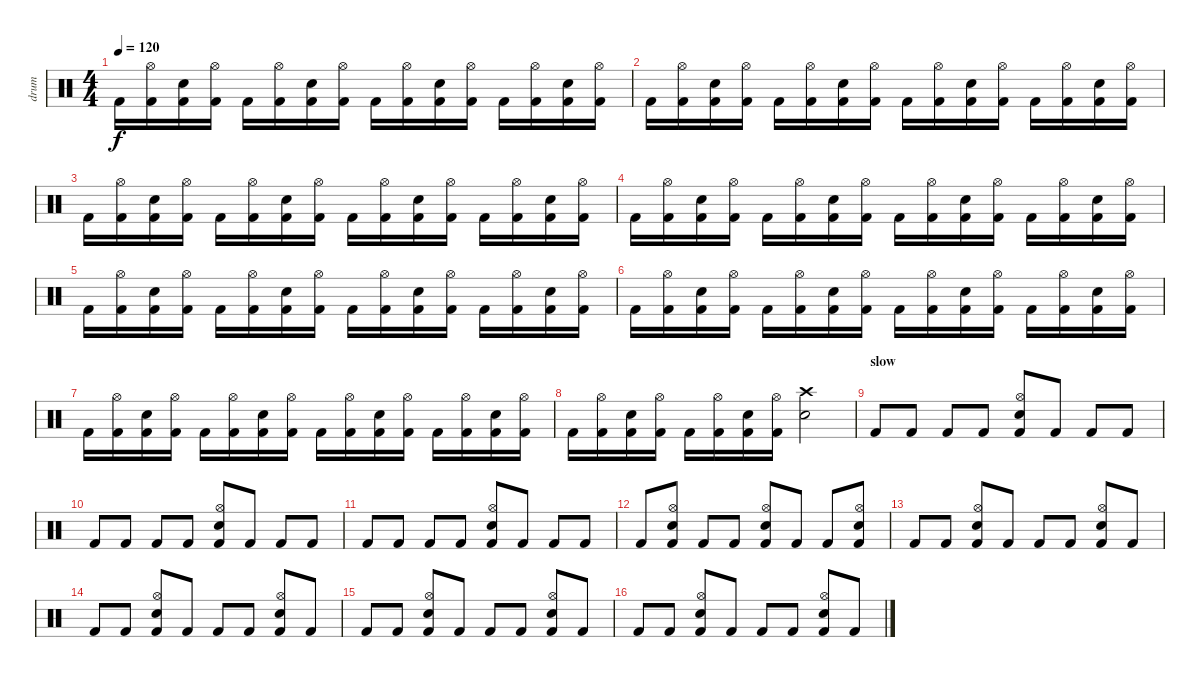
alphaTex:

\track ("drum" "drum") {instrument percussion}
\staff {score}
\articulation defaults
\ts (4 4)
\tempo 120
\clef neutral
\ks c "Kick (hit) 2".16{dy f}
("Hi-Hat (open)" "Kick (hit) 2").16 ("Snare (hit) 2" "Kick (hit) 2").16 ("Hi-Hat (open)" "Kick (hit) 2").16 "Kick (hit) 2".16 ("Hi-Hat (open)" "Kick (hit) 2").16 ("Snare (hit) 2" "Kick (hit) 2").16 ("Hi-Hat (open)" "Kick (hit) 2").16 "Kick (hit) 2".16 ("Hi-Hat (open)" "Kick (hit) 2").16 ("Snare (hit) 2" "Kick (hit) 2").16 ("Hi-Hat (open)" "Kick (hit) 2").16 "Kick (hit) 2".16 ("Hi-Hat (open)" "Kick (hit) 2").16 ("Snare (hit) 2" "Kick (hit) 2").16 ("Hi-Hat (open)" "Kick (hit) 2").16 |
"Kick (hit) 2".16 ("Hi-Hat (open)" "Kick (hit) 2").16 ("Snare (hit) 2" "Kick (hit) 2").16 ("Hi-Hat (open)" "Kick (hit) 2").16 "Kick (hit) 2".16 ("Hi-Hat (open)" "Kick (hit) 2").16 ("Snare (hit) 2" "Kick (hit) 2").16 ("Hi-Hat (open)" "Kick (hit) 2").16 "Kick (hit) 2".16 ("Hi-Hat (open)" "Kick (hit) 2").16 ("Snare (hit) 2" "Kick (hit) 2").16 ("Hi-Hat (open)" "Kick (hit) 2").16 "Kick (hit) 2".16 ("Hi-Hat (open)" "Kick (hit) 2").16 ("Snare (hit) 2" "Kick (hit) 2").16 ("Hi-Hat (open)" "Kick (hit) 2").16 |
"Kick (hit) 2".16 ("Hi-Hat (open)" "Kick (hit) 2").16 ("Snare (hit) 2" "Kick (hit) 2").16 ("Hi-Hat (open)" "Kick (hit) 2").16 "Kick (hit) 2".16 ("Hi-Hat (open)" "Kick (hit) 2").16 ("Snare (hit) 2" "Kick (hit) 2").16 ("Hi-Hat (open)" "Kick (hit) 2").16 "Kick (hit) 2".16 ("Hi-Hat (open)" "Kick (hit) 2").16 ("Snare (hit) 2" "Kick (hit) 2").16 ("Hi-Hat (open)" "Kick (hit) 2").16 "Kick (hit) 2".16 ("Hi-Hat (open)" "Kick (hit) 2").16 ("Snare (hit) 2" "Kick (hit) 2").16 ("Hi-Hat (open)" "Kick (hit) 2").16 |
"Kick (hit) 2".16 ("Hi-Hat (open)" "Kick (hit) 2").16 ("Snare (hit) 2" "Kick (hit) 2").16 ("Hi-Hat (open)" "Kick (hit) 2").16 "Kick (hit) 2".16 ("Hi-Hat (open)" "Kick (hit) 2").16 ("Snare (hit) 2" "Kick (hit) 2").16 ("Hi-Hat (open)" "Kick (hit) 2").16 "Kick (hit) 2".16 ("Hi-Hat (open)" "Kick (hit) 2").16 ("Snare (hit) 2" "Kick (hit) 2").16 ("Hi-Hat (open)" "Kick (hit) 2").16 "Kick (hit) 2".16 ("Hi-Hat (open)" "Kick (hit) 2").16 ("Snare (hit) 2" "Kick (hit) 2").16 ("Hi-Hat (open)" "Kick (hit) 2").16 |
"Kick (hit) 2".16 ("Hi-Hat (open)" "Kick (hit) 2").16 ("Snare (hit) 2" "Kick (hit) 2").16 ("Hi-Hat (open)" "Kick (hit) 2").16 "Kick (hit) 2".16 ("Hi-Hat (open)" "Kick (hit) 2").16 ("Snare (hit) 2" "Kick (hit) 2").16 ("Hi-Hat (open)" "Kick (hit) 2").16 "Kick (hit) 2".16 ("Hi-Hat (open)" "Kick (hit) 2").16 ("Snare (hit) 2" "Kick (hit) 2").16 ("Hi-Hat (open)" "Kick (hit) 2").16 "Kick (hit) 2".16 ("Hi-Hat (open)" "Kick (hit) 2").16 ("Snare (hit) 2" "Kick (hit) 2").16 ("Hi-Hat (open)" "Kick (hit) 2").16 |
"Kick (hit) 2".16 ("Hi-Hat (open)" "Kick (hit) 2").16 ("Snare (hit) 2" "Kick (hit) 2").16 ("Hi-Hat (open)" "Kick (hit) 2").16 "Kick (hit) 2".16 ("Hi-Hat (open)" "Kick (hit) 2").16 ("Snare (hit) 2" "Kick (hit) 2").16 ("Hi-Hat (open)" "Kick (hit) 2").16 "Kick (hit) 2".16 ("Hi-Hat (open)" "Kick (hit) 2").16 ("Snare (hit) 2" "Kick (hit) 2").16 ("Hi-Hat (open)" "Kick (hit) 2").16 "Kick (hit) 2".16 ("Hi-Hat (open)" "Kick (hit) 2").16 ("Snare (hit) 2" "Kick (hit) 2").16 ("Hi-Hat (open)" "Kick (hit) 2").16 |
"Kick (hit) 2".16 ("Hi-Hat (open)" "Kick (hit) 2").16 ("Snare (hit) 2" "Kick (hit) 2").16 ("Hi-Hat (open)" "Kick (hit) 2").16 "Kick (hit) 2".16 ("Hi-Hat (open)" "Kick (hit) 2").16 ("Snare (hit) 2" "Kick (hit) 2").16 ("Hi-Hat (open)" "Kick (hit) 2").16 "Kick (hit) 2".16 ("Hi-Hat (open)" "Kick (hit) 2").16 ("Snare (hit) 2" "Kick (hit) 2").16 ("Hi-Hat (open)" "Kick (hit) 2").16 "Kick (hit) 2".16 ("Hi-Hat (open)" "Kick (hit) 2").16 ("Snare (hit) 2" "Kick (hit) 2").16 ("Hi-Hat (open)" "Kick (hit) 2").16 |
"Kick (hit) 2".16 ("Hi-Hat (open)" "Kick (hit) 2").16 ("Snare (hit) 2" "Kick (hit) 2").16 ("Hi-Hat (open)" "Kick (hit) 2").16 "Kick (hit) 2".16 ("Hi-Hat (open)" "Kick (hit) 2").16 ("Snare (hit) 2" "Kick (hit) 2").16 ("Hi-Hat (open)" "Kick (hit) 2").16 ("Crash high (hit)" "Snare (hit) 2").2 |
\section ("" "slow")
"Kick (hit) 2".8 "Kick (hit) 2".8 "Kick (hit) 2".8 "Kick (hit) 2".8 ("Hi-Hat (open)" "Electric Snare (hit)" "Kick (hit) 2").8 "Kick (hit) 2".8 "Kick (hit) 2".8 "Kick (hit) 2".8 |
"Kick (hit) 2".8 "Kick (hit) 2".8 "Kick (hit) 2".8 "Kick (hit) 2".8 ("Hi-Hat (open)" "Electric Snare (hit)" "Kick (hit) 2").8 "Kick (hit) 2".8 "Kick (hit) 2".8 "Kick (hit) 2".8 |
"Kick (hit) 2".8 "Kick (hit) 2".8 "Kick (hit) 2".8 "Kick (hit) 2".8 ("Hi-Hat (open)" "Electric Snare (hit)" "Kick (hit) 2").8 "Kick (hit) 2".8 "Kick (hit) 2".8 "Kick (hit) 2".8 |
"Kick (hit) 2".8 ("Hi-Hat (open)" "Electric Snare (hit)" "Kick (hit) 2").8 "Kick (hit) 2".8 "Kick (hit) 2".8 ("Hi-Hat (open)" "Electric Snare (hit)" "Kick (hit) 2").8 "Kick (hit) 2".8 "Kick (hit) 2".8 ("Hi-Hat (open)" "Electric Snare (hit)" "Kick (hit) 2").8 |
"Kick (hit) 2".8 "Kick (hit) 2".8 ("Hi-Hat (open)" "Snare (hit) 2" "Kick (hit) 2").8 "Kick (hit) 2".8 "Kick (hit) 2".8 "Kick (hit) 2".8 ("Hi-Hat (open)" "Snare (hit) 2" "Kick (hit) 2").8 "Kick (hit) 2".8 |
"Kick (hit) 2".8 "Kick (hit) 2".8 ("Hi-Hat (open)" "Snare (hit) 2" "Kick (hit) 2").8 "Kick (hit) 2".8 "Kick (hit) 2".8 "Kick (hit) 2".8 ("Hi-Hat (open)" "Snare (hit) 2" "Kick (hit) 2").8 "Kick (hit) 2".8 |
"Kick (hit) 2".8 "Kick (hit) 2".8 ("Hi-Hat (open)" "Snare (hit) 2" "Kick (hit) 2").8 "Kick (hit) 2".8 "Kick (hit) 2".8 "Kick (hit) 2".8 ("Hi-Hat (open)" "Snare (hit) 2" "Kick (hit) 2").8 "Kick (hit) 2".8 |
"Kick (hit) 2".8 "Kick (hit) 2".8 ("Hi-Hat (open)" "Snare (hit) 2" "Kick (hit) 2").8 "Kick (hit) 2".8 "Kick (hit) 2".8 "Kick (hit) 2".8 ("Hi-Hat (open)" "Snare (hit) 2" "Kick (hit) 2").8 "Kick (hit) 2".8
